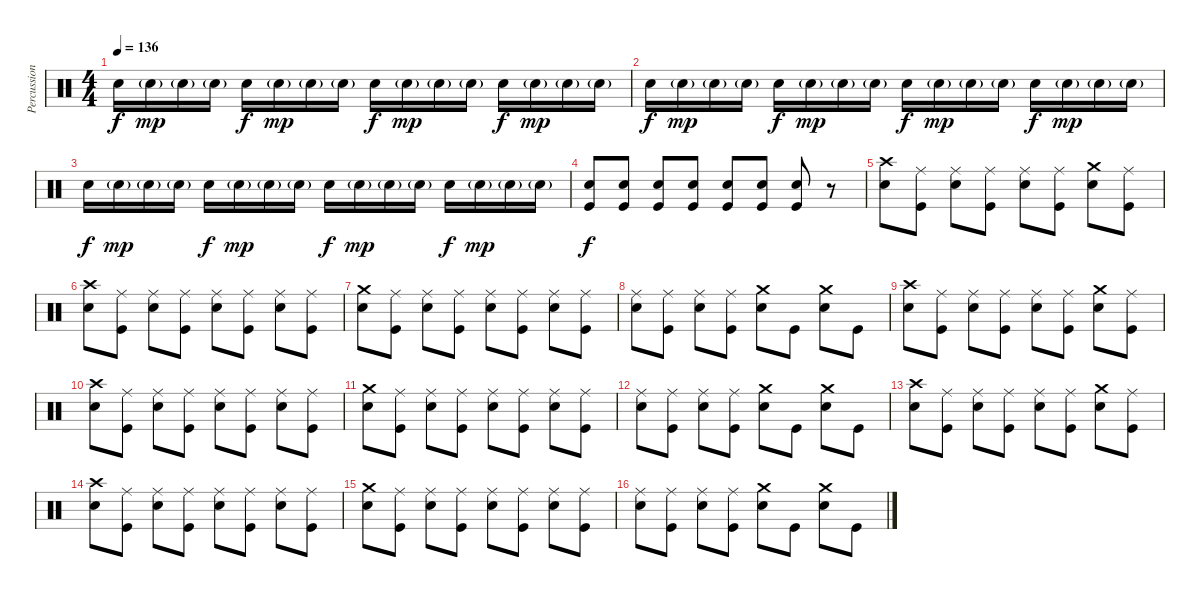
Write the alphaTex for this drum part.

\track ("Percussion" "Percussion") {instrument percussion}
\staff {score}
\articulation defaults
\ts (4 4)
\tempo 136
\clef neutral
\ks c "Electric Snare (hit)".16{dy f} "Electric Snare (hit)"{g}.16{dy mp} "Electric Snare (hit)"{g}.16 "Electric Snare (hit)"{g}.16 "Electric Snare (hit)".16{dy f} "Electric Snare (hit)"{g}.16{dy mp} "Electric Snare (hit)"{g}.16 "Electric Snare (hit)"{g}.16 "Electric Snare (hit)".16{dy f} "Electric Snare (hit)"{g}.16{dy mp} "Electric Snare (hit)"{g}.16 "Electric Snare (hit)"{g}.16 "Electric Snare (hit)".16{dy f} "Electric Snare (hit)"{g}.16{dy mp} "Electric Snare (hit)"{g}.16 "Electric Snare (hit)"{g}.16
|
"Electric Snare (hit)".16{dy f} "Electric Snare (hit)"{g}.16{dy mp} "Electric Snare (hit)"{g}.16 "Electric Snare (hit)"{g}.16 "Electric Snare (hit)".16{dy f} "Electric Snare (hit)"{g}.16{dy mp} "Electric Snare (hit)"{g}.16 "Electric Snare (hit)"{g}.16 "Electric Snare (hit)".16{dy f} "Electric Snare (hit)"{g}.16{dy mp} "Electric Snare (hit)"{g}.16 "Electric Snare (hit)"{g}.16 "Electric Snare (hit)".16{dy f} "Electric Snare (hit)"{g}.16{dy mp} "Electric Snare (hit)"{g}.16 "Electric Snare (hit)"{g}.16 |
"Electric Snare (hit)".16{dy f} "Electric Snare (hit)"{g}.16{dy mp} "Electric Snare (hit)"{g}.16 "Electric Snare (hit)"{g}.16 "Electric Snare (hit)".16{dy f} "Electric Snare (hit)"{g}.16{dy mp} "Electric Snare (hit)"{g}.16 "Electric Snare (hit)"{g}.16 "Electric Snare (hit)".16{dy f} "Electric Snare (hit)"{g}.16{dy mp} "Electric Snare (hit)"{g}.16 "Electric Snare (hit)"{g}.16 "Electric Snare (hit)".16{dy f} "Electric Snare (hit)"{g}.16{dy mp} "Electric Snare (hit)"{g}.16 "Electric Snare (hit)"{g}.16 |
("Electric Snare (hit)" "Kick (hit)").8{dy f} ("Electric Snare (hit)" "Kick (hit)").8 ("Electric Snare (hit)" "Kick (hit)").8 ("Electric Snare (hit)" "Kick (hit)").8 ("Electric Snare (hit)" "Kick (hit)").8 ("Electric Snare (hit)" "Kick (hit)").8 ("Electric Snare (hit)" "Kick (hit)").8 r.8 |
("Crash high (hit)" "Electric Snare (hit)").8 ("Ride (middle)" "Kick (hit)").8 ("Ride (middle)" "Electric Snare (hit)").8 ("Ride (middle)" "Kick (hit)").8 ("Ride (middle)" "Electric Snare (hit)").8 ("Ride (middle)" "Kick (hit)").8 ("Crash medium (hit)" "Electric Snare (hit)").8 ("Ride (middle)" "Kick (hit)").8 |
("Crash high (hit)" "Electric Snare (hit)").8 ("Ride (middle)" "Kick (hit)").8 ("Ride (middle)" "Electric Snare (hit)").8 ("Ride (middle)" "Kick (hit)").8 ("Ride (middle)" "Electric Snare (hit)").8 ("Ride (middle)" "Kick (hit)").8 ("Ride (middle)" "Electric Snare (hit)").8 ("Ride (middle)" "Kick (hit)").8 |
("Crash medium (hit)" "Electric Snare (hit)").8 ("Ride (middle)" "Kick (hit)").8 ("Ride (middle)" "Electric Snare (hit)").8 ("Ride (middle)" "Kick (hit)").8 ("Ride (middle)" "Electric Snare (hit)").8 ("Ride (middle)" "Kick (hit)").8 ("Ride (middle)" "Electric Snare (hit)").8 ("Ride (middle)" "Kick (hit)").8 |
("Ride (middle)" "Electric Snare (hit)").8 ("Ride (middle)" "Kick (hit)").8 ("Ride (middle)" "Electric Snare (hit)").8 ("Ride (middle)" "Kick (hit)").8 ("Crash medium (hit)" "Electric Snare (hit)").8 "Kick (hit)".8 ("Crash medium (hit)" "Electric Snare (hit)").8 "Kick (hit)".8 |
("Crash high (hit)" "Electric Snare (hit)").8 ("Ride (middle)" "Kick (hit)").8 ("Ride (middle)" "Electric Snare (hit)").8 ("Ride (middle)" "Kick (hit)").8 ("Ride (middle)" "Electric Snare (hit)").8 ("Ride (middle)" "Kick (hit)").8 ("Crash medium (hit)" "Electric Snare (hit)").8 ("Ride (middle)" "Kick (hit)").8 |
("Crash high (hit)" "Electric Snare (hit)").8 ("Ride (middle)" "Kick (hit)").8 ("Ride (middle)" "Electric Snare (hit)").8 ("Ride (middle)" "Kick (hit)").8 ("Ride (middle)" "Electric Snare (hit)").8 ("Ride (middle)" "Kick (hit)").8 ("Ride (middle)" "Electric Snare (hit)").8 ("Ride (middle)" "Kick (hit)").8 |
("Crash medium (hit)" "Electric Snare (hit)").8 ("Ride (middle)" "Kick (hit)").8 ("Ride (middle)" "Electric Snare (hit)").8 ("Ride (middle)" "Kick (hit)").8 ("Ride (middle)" "Electric Snare (hit)").8 ("Ride (middle)" "Kick (hit)").8 ("Ride (middle)" "Electric Snare (hit)").8 ("Ride (middle)" "Kick (hit)").8 |
("Ride (middle)" "Electric Snare (hit)").8 ("Ride (middle)" "Kick (hit)").8 ("Ride (middle)" "Electric Snare (hit)").8 ("Ride (middle)" "Kick (hit)").8 ("Crash medium (hit)" "Electric Snare (hit)").8 "Kick (hit)".8 ("Crash medium (hit)" "Electric Snare (hit)").8 "Kick (hit)".8 |
("Crash high (hit)" "Electric Snare (hit)").8 ("Ride (middle)" "Kick (hit)").8 ("Ride (middle)" "Electric Snare (hit)").8 ("Ride (middle)" "Kick (hit)").8 ("Ride (middle)" "Electric Snare (hit)").8 ("Ride (middle)" "Kick (hit)").8 ("Crash medium (hit)" "Electric Snare (hit)").8 ("Ride (middle)" "Kick (hit)").8 |
("Crash high (hit)" "Electric Snare (hit)").8 ("Ride (middle)" "Kick (hit)").8 ("Ride (middle)" "Electric Snare (hit)").8 ("Ride (middle)" "Kick (hit)").8 ("Ride (middle)" "Electric Snare (hit)").8 ("Ride (middle)" "Kick (hit)").8 ("Ride (middle)" "Electric Snare (hit)").8 ("Ride (middle)" "Kick (hit)").8 |
("Crash medium (hit)" "Electric Snare (hit)").8 ("Ride (middle)" "Kick (hit)").8 ("Ride (middle)" "Electric Snare (hit)").8 ("Ride (middle)" "Kick (hit)").8 ("Ride (middle)" "Electric Snare (hit)").8 ("Ride (middle)" "Kick (hit)").8 ("Ride (middle)" "Electric Snare (hit)").8 ("Ride (middle)" "Kick (hit)").8 |
("Ride (middle)" "Electric Snare (hit)").8 ("Ride (middle)" "Kick (hit)").8 ("Ride (middle)" "Electric Snare (hit)").8 ("Ride (middle)" "Kick (hit)").8 ("Crash medium (hit)" "Electric Snare (hit)").8 "Kick (hit)".8 ("Crash medium (hit)" "Electric Snare (hit)").8 "Kick (hit)".8
